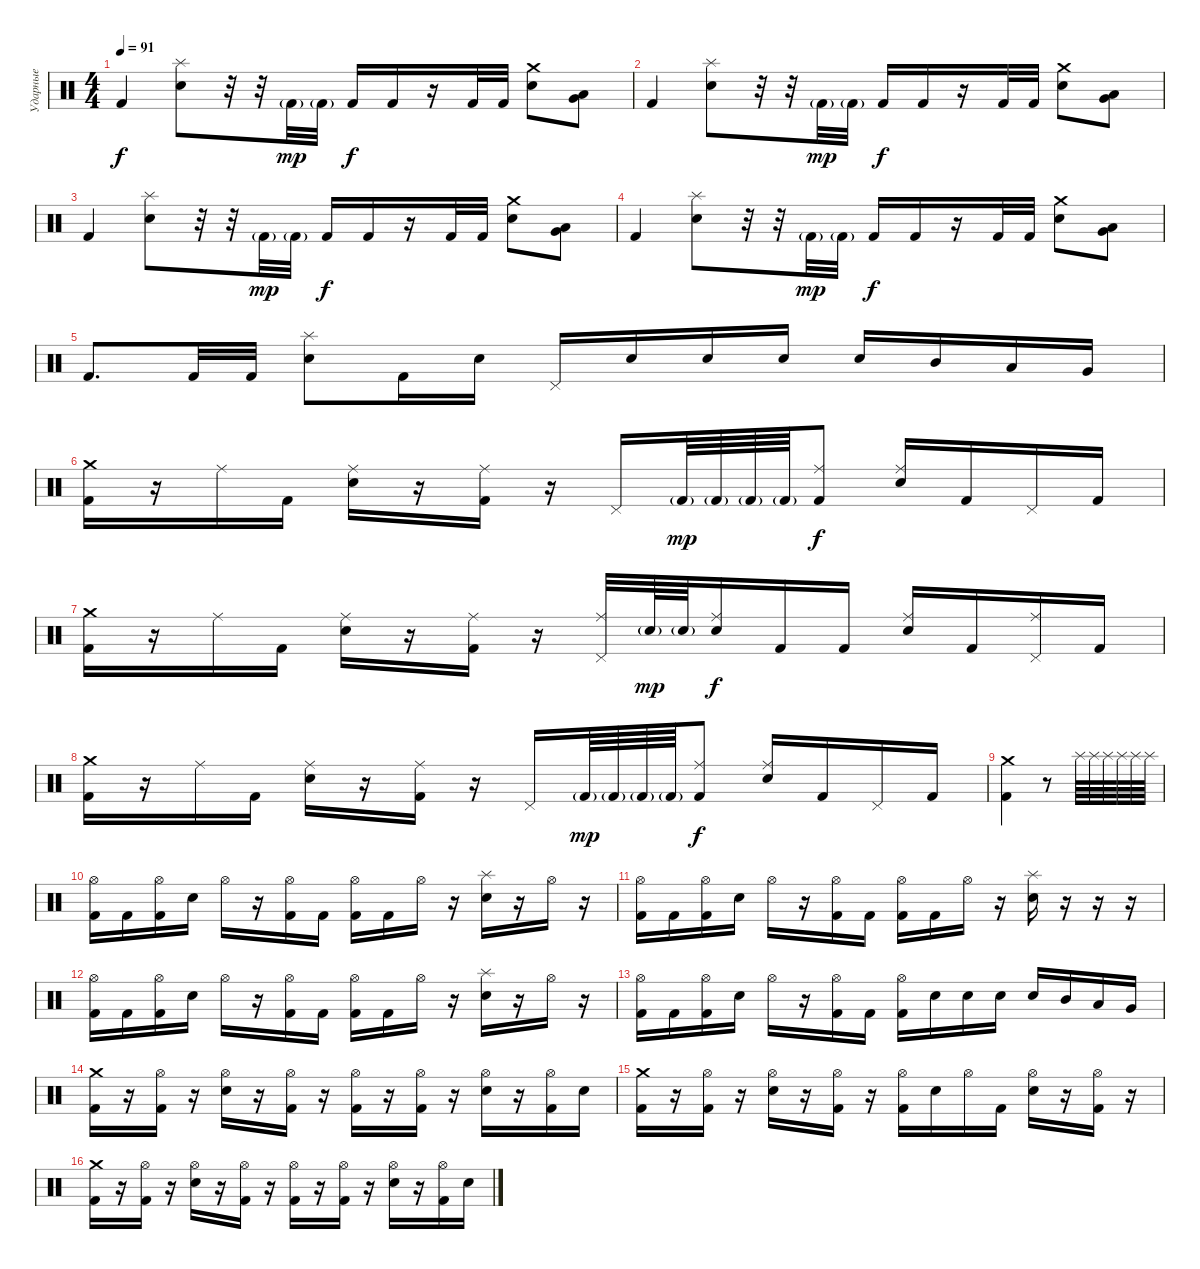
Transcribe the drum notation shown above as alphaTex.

\track ("Ударные" "Ударные") {instrument percussion}
\staff {score}
\articulation defaults
\ts (4 4)
\tempo 91
\clef neutral
\ks c "Kick (hit) 2".4{dy f}
("Splash (hit)" "Snare (hit) 2").8 r.32 r.32 "Kick (hit) 2"{g}.32{dy mp} "Kick (hit) 2"{g}.32 "Kick (hit) 2".16{dy f} "Kick (hit) 2".16 r.16 "Kick (hit) 2".32 "Kick (hit) 2".32 ("Crash medium (hit)" "Snare (hit) 2").8 ("Low Tom (hit)" "Very Low Tom (hit)").8{bd 30} |
"Kick (hit) 2".4 ("Splash (hit)" "Snare (hit) 2").8 r.32 r.32 "Kick (hit) 2"{g}.32{dy mp} "Kick (hit) 2"{g}.32 "Kick (hit) 2".16{dy f} "Kick (hit) 2".16 r.16 "Kick (hit) 2".32 "Kick (hit) 2".32 ("Crash medium (hit)" "Snare (hit) 2").8 ("Low Tom (hit)" "Very Low Tom (hit)").8{bd 30} |
"Kick (hit) 2".4 ("Splash (hit)" "Snare (hit) 2").8 r.32 r.32 "Kick (hit) 2"{g}.32{dy mp} "Kick (hit) 2"{g}.32 "Kick (hit) 2".16{dy f} "Kick (hit) 2".16 r.16 "Kick (hit) 2".32 "Kick (hit) 2".32 ("Crash medium (hit)" "Snare (hit) 2").8 ("Low Tom (hit)" "Very Low Tom (hit)").8{bd 30} |
"Kick (hit) 2".4 ("Splash (hit)" "Snare (hit) 2").8 r.32 r.32 "Kick (hit) 2"{g}.32{dy mp} "Kick (hit) 2"{g}.32 "Kick (hit) 2".16{dy f} "Kick (hit) 2".16 r.16 "Kick (hit) 2".32 "Kick (hit) 2".32 ("Crash medium (hit)" "Snare (hit) 2").8 ("Low Tom (hit)" "Very Low Tom (hit)").8{bd 30} |
"Kick (hit) 2".8{d} "Kick (hit) 2".32 "Kick (hit) 2".32 ("Splash (hit)" "Snare (hit) 2").8 "Kick (hit) 2".16 "Snare (hit) 2".16 "Pedal Hi-Hat (hit)".16 "Snare (hit) 2".16 "Snare (hit) 2".16 "Snare (hit) 2".16 "Snare (hit) 2".16 "Mid Tom (hit)".16 "Low Tom (hit)".16 "Very Low Tom (hit)".16 |
("Crash medium (hit)" "Kick (hit) 2").16 r.16 "Ride (middle)".16 "Kick (hit) 2".16 ("Ride (middle)" "Snare (hit) 2").16 r.16 ("Ride (middle)" "Kick (hit) 2").16 r.16 "Pedal Hi-Hat (hit)".16 "Kick (hit) 2"{g}.64{dy mp} "Kick (hit) 2"{g}.64 "Kick (hit) 2"{g}.64 "Kick (hit) 2"{g}.64 ("Ride (middle)" "Kick (hit) 2").8{dy f} ("Ride (middle)" "Snare (hit) 2").16 "Kick (hit) 2".16 "Pedal Hi-Hat (hit)".16 "Kick (hit) 2".16 |
("Crash medium (hit)" "Kick (hit) 2").16 r.16 "Ride (middle)".16 "Kick (hit) 2".16 ("Ride (middle)" "Snare (hit) 2").16 r.16 ("Ride (middle)" "Kick (hit) 2").16 r.16 ("Ride (middle)" "Pedal Hi-Hat (hit)").32 "Snare (hit) 2"{g}.64{dy mp} "Snare (hit) 2"{g}.64 ("Ride (middle)" "Snare (hit) 2").16{dy f} "Kick (hit) 2".16 "Kick (hit) 2".16 ("Ride (middle)" "Snare (hit) 2").16 "Kick (hit) 2".16 ("Ride (middle)" "Pedal Hi-Hat (hit)").16 "Kick (hit) 2".16 |
("Crash medium (hit)" "Kick (hit) 2").16 r.16 "Ride (middle)".16 "Kick (hit) 2".16 ("Ride (middle)" "Snare (hit) 2").16 r.16 ("Ride (middle)" "Kick (hit) 2").16 r.16 "Pedal Hi-Hat (hit)".16 "Kick (hit) 2"{g}.64{dy mp} "Kick (hit) 2"{g}.64 "Kick (hit) 2"{g}.64 "Kick (hit) 2"{g}.64 ("Ride (middle)" "Kick (hit) 2").8{dy f} ("Ride (middle)" "Snare (hit) 2").16 "Kick (hit) 2".16 "Pedal Hi-Hat (hit)".16 "Kick (hit) 2".16 |
("Crash medium (hit)" "Kick (hit) 2").4 r.8 "Splash (hit)".64 "Splash (hit)".64 "Splash (hit)".64 "Splash (hit)".64 "Splash (hit)".64 "Splash (hit)".64 |
("Hi-Hat (open)" "Kick (hit) 2").16 "Kick (hit) 2".16 ("Hi-Hat (open)" "Kick (hit) 2").16 "Snare (hit) 2".16 "Hi-Hat (open)".16 r.16 ("Hi-Hat (open)" "Kick (hit) 2").16 "Kick (hit) 2".16 ("Hi-Hat (open)" "Kick (hit) 2").16 "Kick (hit) 2".16 "Hi-Hat (open)".16 r.16 ("Splash (hit)" "Snare (hit) 2").16 r.16 "Hi-Hat (open)".16 r.16 |
("Hi-Hat (open)" "Kick (hit) 2").16 "Kick (hit) 2".16 ("Hi-Hat (open)" "Kick (hit) 2").16 "Snare (hit) 2".16 "Hi-Hat (open)".16 r.16 ("Hi-Hat (open)" "Kick (hit) 2").16 "Kick (hit) 2".16 ("Hi-Hat (open)" "Kick (hit) 2").16 "Kick (hit) 2".16 "Hi-Hat (open)".16 r.16 ("Splash (hit)" "Snare (hit) 2").16 r.16 r.16 r.16 |
("Hi-Hat (open)" "Kick (hit) 2").16 "Kick (hit) 2".16 ("Hi-Hat (open)" "Kick (hit) 2").16 "Snare (hit) 2".16 "Hi-Hat (open)".16 r.16 ("Hi-Hat (open)" "Kick (hit) 2").16 "Kick (hit) 2".16 ("Hi-Hat (open)" "Kick (hit) 2").16 "Kick (hit) 2".16 "Hi-Hat (open)".16 r.16 ("Splash (hit)" "Snare (hit) 2").16 r.16 "Hi-Hat (open)".16 r.16 |
("Hi-Hat (open)" "Kick (hit) 2").16 "Kick (hit) 2".16 ("Hi-Hat (open)" "Kick (hit) 2").16 "Snare (hit) 2".16 "Hi-Hat (open)".16 r.16 ("Hi-Hat (open)" "Kick (hit) 2").16 "Kick (hit) 2".16 ("Hi-Hat (open)" "Kick (hit) 2").16 "Snare (hit) 2".16 "Snare (hit) 2".16 "Snare (hit) 2".16 "Snare (hit) 2".16 "Mid Tom (hit)".16 "Low Tom (hit)".16 "Very Low Tom (hit)".16 |
("Crash medium (hit)" "Kick (hit) 2").16 r.16 ("Hi-Hat (open)" "Kick (hit) 2").16 r.16 ("Hi-Hat (open)" "Snare (hit) 2").16 r.16 ("Hi-Hat (open)" "Kick (hit) 2").16 r.16 ("Hi-Hat (open)" "Kick (hit) 2").16 r.16 ("Hi-Hat (open)" "Kick (hit) 2").16 r.16 ("Hi-Hat (open)" "Snare (hit) 2").16 r.16 ("Hi-Hat (open)" "Kick (hit) 2").16 "Snare (hit) 2".16 |
("Crash medium (hit)" "Kick (hit) 2").16 r.16 ("Hi-Hat (open)" "Kick (hit) 2").16 r.16 ("Hi-Hat (open)" "Snare (hit) 2").16 r.16 ("Hi-Hat (open)" "Kick (hit) 2").16 r.16 ("Hi-Hat (open)" "Kick (hit) 2").16 "Snare (hit) 2".16 "Hi-Hat (open)".16 "Kick (hit) 2".16 ("Hi-Hat (open)" "Snare (hit) 2").16 r.16 ("Hi-Hat (open)" "Kick (hit) 2").16 r.16 |
("Crash medium (hit)" "Kick (hit) 2").16 r.16 ("Hi-Hat (open)" "Kick (hit) 2").16 r.16 ("Hi-Hat (open)" "Snare (hit) 2").16 r.16 ("Hi-Hat (open)" "Kick (hit) 2").16 r.16 ("Hi-Hat (open)" "Kick (hit) 2").16 r.16 ("Hi-Hat (open)" "Kick (hit) 2").16 r.16 ("Hi-Hat (open)" "Snare (hit) 2").16 r.16 ("Hi-Hat (open)" "Kick (hit) 2").16 "Snare (hit) 2".16
